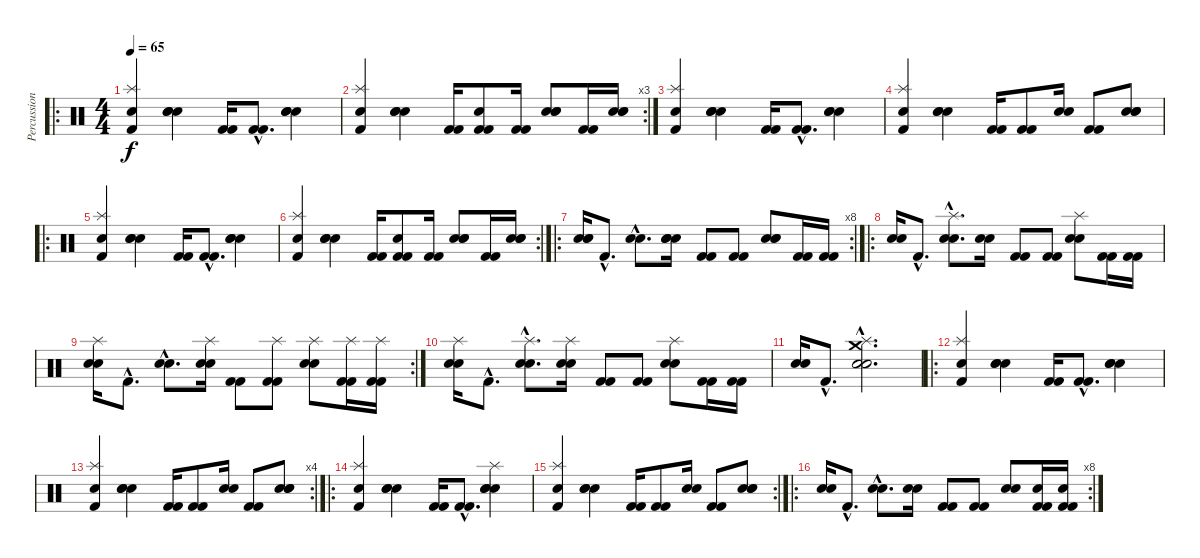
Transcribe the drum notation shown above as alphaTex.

\track ("Percussions" "Percussion") {instrument percussion}
\staff {score}
\articulation defaults
\ro
\ts (4 4)
\tempo 65
\clef neutral
\ks c
("Kick (hit) 2" "Splash (hit)" "Snare (hit) 2").4{dy f} ("Snare (hit) 2" "Snare (hit) 2" "Electric Snare (hit)").4 ("Kick (hit) 2" "Kick (hit) 2").16 ("Kick (hit) 2"{hac} "Kick (hit) 2"{hac}).8{d} ("Snare (hit) 2" "Snare (hit) 2" "Electric Snare (hit)").4 |
\rc 3
("Kick (hit) 2" "Splash (hit)" "Snare (hit) 2").4 ("Snare (hit) 2" "Snare (hit) 2" "Electric Snare (hit)").4 ("Kick (hit) 2" "Kick (hit) 2").16 ("Kick (hit) 2" "Kick (hit) 2" "Electric Snare (hit)").8 ("Kick (hit) 2" "Kick (hit) 2").16 ("Snare (hit) 2" "Snare (hit) 2" "Electric Snare (hit)").8 ("Kick (hit) 2" "Kick (hit) 2").16 ("Snare (hit) 2" "Snare (hit) 2" "Electric Snare (hit)").16 |
("Kick (hit) 2" "Splash (hit)" "Snare (hit) 2").4 ("Snare (hit) 2" "Snare (hit) 2" "Electric Snare (hit)").4 ("Kick (hit) 2" "Kick (hit) 2").16 ("Kick (hit) 2"{hac} "Kick (hit) 2"{hac}).8{d} ("Snare (hit) 2" "Snare (hit) 2" "Electric Snare (hit)").4 |
("Kick (hit) 2" "Splash (hit)" "Snare (hit) 2").4 ("Snare (hit) 2" "Snare (hit) 2" "Electric Snare (hit)").4 ("Kick (hit) 2" "Kick (hit) 2").16 ("Kick (hit) 2" "Kick (hit) 2").8 ("Snare (hit) 2" "Snare (hit) 2").16 ("Kick (hit) 2" "Kick (hit) 2").8 ("Snare (hit) 2" "Snare (hit) 2" "Electric Snare (hit)").8 |
\ro
("Kick (hit) 2" "Splash (hit)" "Snare (hit) 2").4 ("Snare (hit) 2" "Snare (hit) 2" "Electric Snare (hit)").4 ("Kick (hit) 2" "Kick (hit) 2").16 ("Kick (hit) 2"{hac} "Kick (hit) 2"{hac}).8{d} ("Snare (hit) 2" "Snare (hit) 2" "Electric Snare (hit)").4 |
\rc 2
("Kick (hit) 2" "Splash (hit)" "Snare (hit) 2").4 ("Snare (hit) 2" "Snare (hit) 2" "Electric Snare (hit)").4 ("Kick (hit) 2" "Kick (hit) 2").16 ("Kick (hit) 2" "Kick (hit) 2" "Electric Snare (hit)").8 ("Kick (hit) 2" "Kick (hit) 2").16 ("Snare (hit) 2" "Snare (hit) 2" "Electric Snare (hit)").8 ("Kick (hit) 2" "Kick (hit) 2").16 ("Snare (hit) 2" "Snare (hit) 2" "Electric Snare (hit)").16 |
\ro
\rc 8
("Snare (hit) 2" "Snare (hit) 2" "Electric Snare (hit)").16 "Kick (hit) 2"{hac}.8{d} ("Snare (hit) 2"{hac} "Snare (hit) 2"{hac}).8{d} ("Snare (hit) 2" "Snare (hit) 2" "Electric Snare (hit)").16 ("Kick (hit) 2" "Kick (hit) 2").8 ("Kick (hit) 2" "Kick (hit) 2").8 ("Snare (hit) 2" "Snare (hit) 2" "Electric Snare (hit)").8 ("Kick (hit) 2" "Kick (hit) 2").16 ("Kick (hit) 2" "Kick (hit) 2").16 |
\ro
("Snare (hit) 2" "Snare (hit) 2").16 "Kick (hit) 2"{hac}.8{d} ("Snare (hit) 2"{hac} "Electric Snare (hit)"{hac} "Splash (hit)"{hac}).8{d} ("Snare (hit) 2" "Snare (hit) 2").16 ("Kick (hit) 2" "Kick (hit) 2").8 ("Kick (hit) 2" "Kick (hit) 2").8 ("Snare (hit) 2" "Snare (hit) 2" "Splash (hit)").8 ("Kick (hit) 2" "Kick (hit) 2").16 ("Kick (hit) 2" "Kick (hit) 2").16 |
\rc 2
("Snare (hit) 2" "Snare (hit) 2" "Splash (hit)").16 "Kick (hit) 2"{hac}.8{d} ("Snare (hit) 2"{hac} "Electric Snare (hit)"{hac}).8{d} ("Snare (hit) 2" "Snare (hit) 2" "Splash (hit)").16 ("Kick (hit) 2" "Kick (hit) 2").8 ("Kick (hit) 2" "Kick (hit) 2" "Splash (hit)").8 ("Snare (hit) 2" "Snare (hit) 2" "Splash (hit)").8 ("Kick (hit) 2" "Kick (hit) 2" "Splash (hit)").16 ("Kick (hit) 2" "Kick (hit) 2" "Splash (hit)").16 |
("Snare (hit) 2" "Snare (hit) 2" "Splash (hit)").16 "Kick (hit) 2"{hac}.8{d} ("Snare (hit) 2"{hac} "Electric Snare (hit)"{hac} "Splash (hit)"{hac}).8{d} ("Snare (hit) 2" "Snare (hit) 2" "Splash (hit)").16 ("Kick (hit) 2" "Kick (hit) 2").8 ("Kick (hit) 2" "Kick (hit) 2").8 ("Snare (hit) 2" "Snare (hit) 2" "Splash (hit)").8 ("Kick (hit) 2" "Kick (hit) 2").16 ("Kick (hit) 2" "Kick (hit) 2").16 |
("Snare (hit) 2" "Snare (hit) 2").16 "Kick (hit) 2"{hac}.8{d} ("Splash (hit)"{hac} "Snare (hit) 2"{hac} "Electric Snare (hit)"{hac} "Crash medium (hit)"{hac}).2{d} |
\ro
("Kick (hit) 2" "Splash (hit)" "Snare (hit) 2").4 ("Snare (hit) 2" "Snare (hit) 2" "Electric Snare (hit)").4 ("Kick (hit) 2" "Kick (hit) 2").16 ("Kick (hit) 2"{hac} "Kick (hit) 2"{hac}).8{d} ("Snare (hit) 2" "Snare (hit) 2" "Electric Snare (hit)").4 |
\rc 4
("Kick (hit) 2" "Splash (hit)" "Snare (hit) 2").4 ("Snare (hit) 2" "Snare (hit) 2" "Electric Snare (hit)").4 ("Kick (hit) 2" "Kick (hit) 2").16 ("Kick (hit) 2" "Kick (hit) 2").8 ("Snare (hit) 2" "Snare (hit) 2").16 ("Kick (hit) 2" "Kick (hit) 2").8 ("Snare (hit) 2" "Snare (hit) 2" "Electric Snare (hit)").8 |
\ro
("Kick (hit) 2" "Splash (hit)" "Snare (hit) 2").4 ("Snare (hit) 2" "Snare (hit) 2" "Electric Snare (hit)").4 ("Kick (hit) 2" "Kick (hit) 2").16 ("Kick (hit) 2"{hac} "Kick (hit) 2"{hac}).8{d} ("Snare (hit) 2" "Snare (hit) 2" "Electric Snare (hit)" "Splash (hit)").4 |
\rc 2
("Kick (hit) 2" "Splash (hit)" "Snare (hit) 2").4 ("Snare (hit) 2" "Snare (hit) 2" "Electric Snare (hit)").4 ("Kick (hit) 2" "Kick (hit) 2").16 ("Kick (hit) 2" "Kick (hit) 2").8 ("Snare (hit) 2" "Snare (hit) 2").16 ("Kick (hit) 2" "Kick (hit) 2").8 ("Snare (hit) 2" "Snare (hit) 2" "Electric Snare (hit)").8 |
\ro
\rc 8
("Snare (hit) 2" "Snare (hit) 2").16 "Kick (hit) 2"{hac}.8{d} ("Snare (hit) 2"{hac} "Electric Snare (hit)"{hac}).8{d} ("Snare (hit) 2" "Snare (hit) 2").16 ("Kick (hit) 2" "Kick (hit) 2").8 ("Kick (hit) 2" "Kick (hit) 2").8 ("Snare (hit) 2" "Snare (hit) 2").8 ("Kick (hit) 2" "Kick (hit) 2" "Electric Snare (hit)").16 ("Kick (hit) 2" "Kick (hit) 2" "Electric Snare (hit)").16
